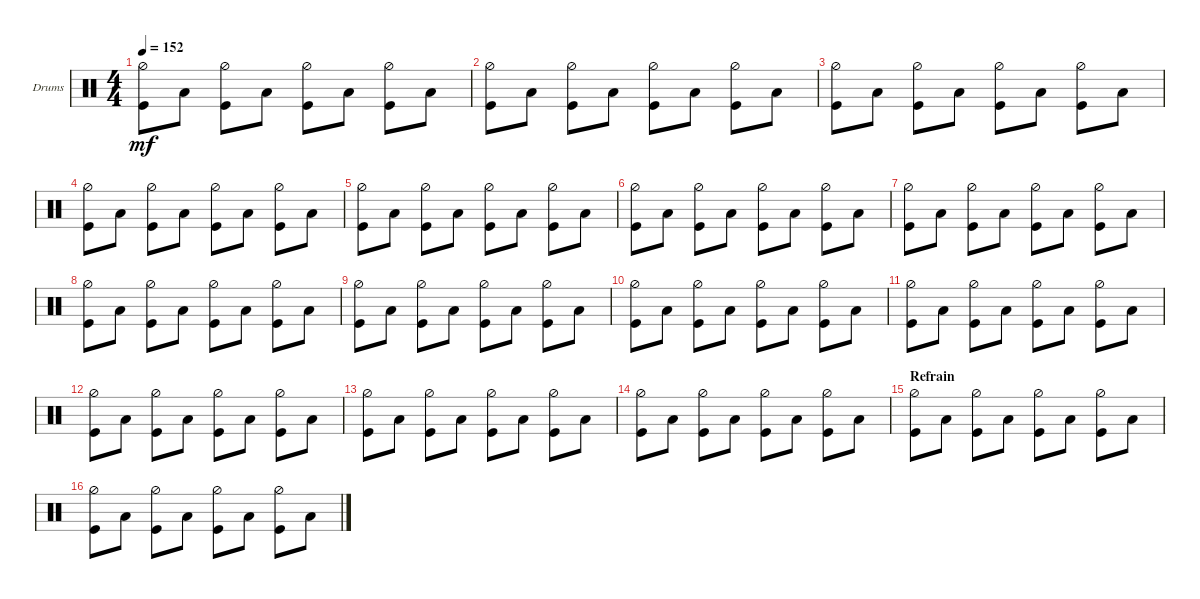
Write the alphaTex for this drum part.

\defaultSystemsLayout 4
\bracketExtendMode groupsimilarinstruments
\firstSystemTrackNameOrientation horizontal
\otherSystemsTrackNameOrientation horizontal
\track ("Dre Drum" "Drums") {instrument percussion}
\staff {score}
\articulation defaults
\ts (4 4)
\tempo 152
\clef neutral
\ks c
("Kick (hit)" "Hi-Hat (half)").8{dy mf} "Low Tom (hit)".8 ("Kick (hit)" "Hi-Hat (half)").8 "Low Tom (hit)".8 ("Kick (hit)" "Hi-Hat (half)").8 "Low Tom (hit)".8 ("Kick (hit)" "Hi-Hat (half)").8 "Low Tom (hit)".8 |
("Kick (hit)" "Hi-Hat (half)").8 "Low Tom (hit)".8 ("Kick (hit)" "Hi-Hat (half)").8 "Low Tom (hit)".8 ("Kick (hit)" "Hi-Hat (half)").8 "Low Tom (hit)".8 ("Kick (hit)" "Hi-Hat (half)").8 "Low Tom (hit)".8 |
("Kick (hit)" "Hi-Hat (half)").8 "Low Tom (hit)".8 ("Kick (hit)" "Hi-Hat (half)").8 "Low Tom (hit)".8 ("Kick (hit)" "Hi-Hat (half)").8 "Low Tom (hit)".8 ("Kick (hit)" "Hi-Hat (half)").8 "Low Tom (hit)".8 |
("Kick (hit)" "Hi-Hat (half)").8 "Low Tom (hit)".8 ("Kick (hit)" "Hi-Hat (half)").8 "Low Tom (hit)".8 ("Kick (hit)" "Hi-Hat (half)").8 "Low Tom (hit)".8 ("Kick (hit)" "Hi-Hat (half)").8 "Low Tom (hit)".8 |
("Kick (hit)" "Hi-Hat (half)").8 "Low Tom (hit)".8 ("Kick (hit)" "Hi-Hat (half)").8 "Low Tom (hit)".8 ("Kick (hit)" "Hi-Hat (half)").8 "Low Tom (hit)".8 ("Kick (hit)" "Hi-Hat (half)").8 "Low Tom (hit)".8 |
("Kick (hit)" "Hi-Hat (half)").8 "Low Tom (hit)".8 ("Kick (hit)" "Hi-Hat (half)").8 "Low Tom (hit)".8 ("Kick (hit)" "Hi-Hat (half)").8 "Low Tom (hit)".8 ("Kick (hit)" "Hi-Hat (half)").8 "Low Tom (hit)".8 |
("Kick (hit)" "Hi-Hat (half)").8 "Low Tom (hit)".8 ("Kick (hit)" "Hi-Hat (half)").8 "Low Tom (hit)".8 ("Kick (hit)" "Hi-Hat (half)").8 "Low Tom (hit)".8 ("Kick (hit)" "Hi-Hat (half)").8 "Low Tom (hit)".8 |
("Kick (hit)" "Hi-Hat (half)").8 "Low Tom (hit)".8 ("Kick (hit)" "Hi-Hat (half)").8 "Low Tom (hit)".8 ("Kick (hit)" "Hi-Hat (half)").8 "Low Tom (hit)".8 ("Kick (hit)" "Hi-Hat (half)").8 "Low Tom (hit)".8 |
("Kick (hit)" "Hi-Hat (half)").8 "Low Tom (hit)".8 ("Kick (hit)" "Hi-Hat (half)").8 "Low Tom (hit)".8 ("Kick (hit)" "Hi-Hat (half)").8 "Low Tom (hit)".8 ("Kick (hit)" "Hi-Hat (half)").8 "Low Tom (hit)".8 |
("Kick (hit)" "Hi-Hat (half)").8 "Low Tom (hit)".8 ("Kick (hit)" "Hi-Hat (half)").8 "Low Tom (hit)".8 ("Kick (hit)" "Hi-Hat (half)").8 "Low Tom (hit)".8 ("Kick (hit)" "Hi-Hat (half)").8 "Low Tom (hit)".8 |
("Kick (hit)" "Hi-Hat (half)").8 "Low Tom (hit)".8 ("Kick (hit)" "Hi-Hat (half)").8 "Low Tom (hit)".8 ("Kick (hit)" "Hi-Hat (half)").8 "Low Tom (hit)".8 ("Kick (hit)" "Hi-Hat (half)").8 "Low Tom (hit)".8 |
("Kick (hit)" "Hi-Hat (half)").8 "Low Tom (hit)".8 ("Kick (hit)" "Hi-Hat (half)").8 "Low Tom (hit)".8 ("Kick (hit)" "Hi-Hat (half)").8 "Low Tom (hit)".8 ("Kick (hit)" "Hi-Hat (half)").8 "Low Tom (hit)".8 |
("Kick (hit)" "Hi-Hat (half)").8 "Low Tom (hit)".8 ("Kick (hit)" "Hi-Hat (half)").8 "Low Tom (hit)".8 ("Kick (hit)" "Hi-Hat (half)").8 "Low Tom (hit)".8 ("Kick (hit)" "Hi-Hat (half)").8 "Low Tom (hit)".8 |
("Kick (hit)" "Hi-Hat (half)").8 "Low Tom (hit)".8 ("Kick (hit)" "Hi-Hat (half)").8 "Low Tom (hit)".8 ("Kick (hit)" "Hi-Hat (half)").8 "Low Tom (hit)".8 ("Kick (hit)" "Hi-Hat (half)").8 "Low Tom (hit)".8 |
\section ("" "Refrain")
("Kick (hit)" "Hi-Hat (half)").8 "Low Tom (hit)".8 ("Kick (hit)" "Hi-Hat (half)").8 "Low Tom (hit)".8 ("Kick (hit)" "Hi-Hat (half)").8 "Low Tom (hit)".8 ("Kick (hit)" "Hi-Hat (half)").8 "Low Tom (hit)".8 |
("Kick (hit)" "Hi-Hat (half)").8 "Low Tom (hit)".8 ("Kick (hit)" "Hi-Hat (half)").8 "Low Tom (hit)".8 ("Kick (hit)" "Hi-Hat (half)").8 "Low Tom (hit)".8 ("Kick (hit)" "Hi-Hat (half)").8 "Low Tom (hit)".8
